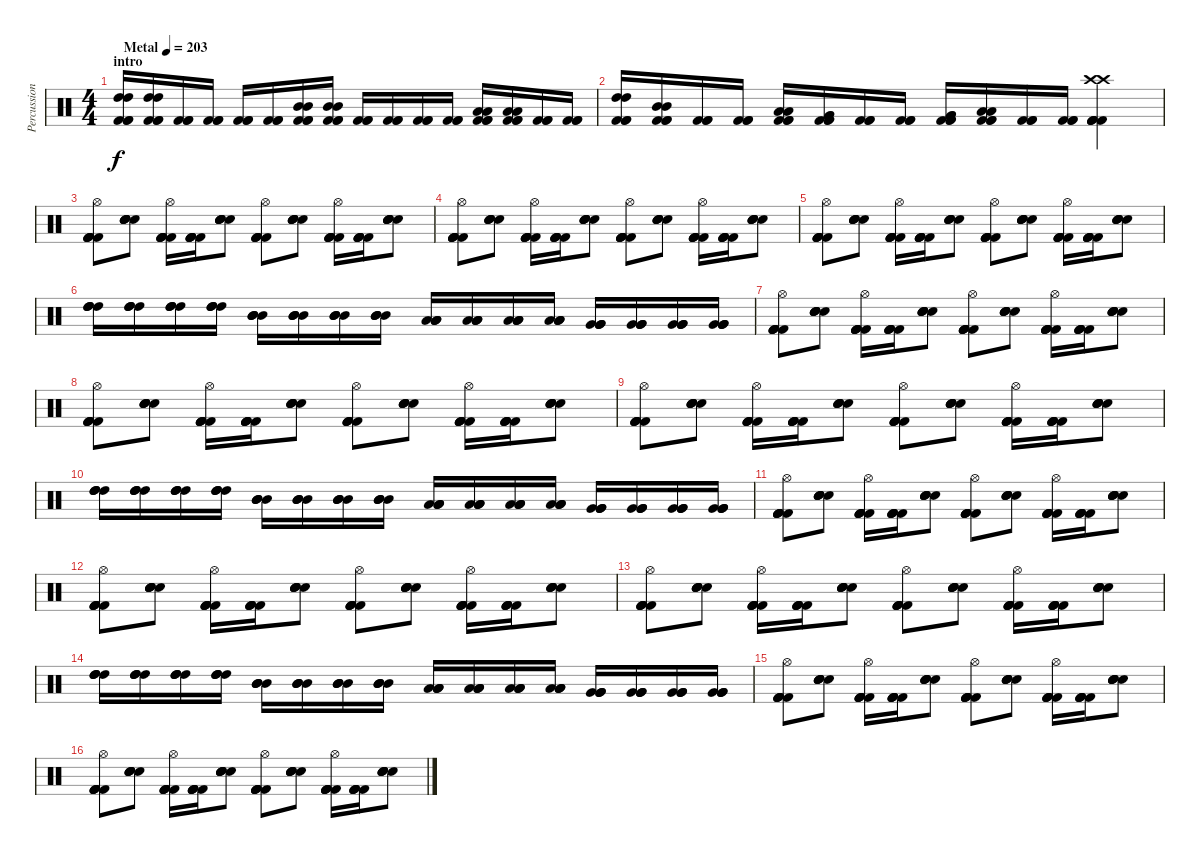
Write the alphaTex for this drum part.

\track ("Percussion" "Percussion") {instrument percussion}
\staff {score}
\articulation defaults
\ts (4 4)
\section ("" "intro")
\tempo (203 "Metal")
\clef neutral
\ks c
("Kick (hit) 2" "Kick (hit) 2" "Kick (hit) 2" "High Tom (hit)" "High Tom (hit)").16{dy f} ("Kick (hit) 2" "Kick (hit) 2" "Kick (hit) 2" "High Tom (hit)" "High Tom (hit)").16 ("Kick (hit) 2" "Kick (hit) 2" "Kick (hit) 2").16 ("Kick (hit) 2" "Kick (hit) 2" "Kick (hit) 2").16 ("Kick (hit) 2" "Kick (hit) 2" "Kick (hit) 2").16 ("Kick (hit) 2" "Kick (hit) 2" "Kick (hit) 2").16 ("Kick (hit) 2" "Kick (hit) 2" "Kick (hit) 2" "Mid Tom (hit)" "Mid Tom (hit)").16 ("Kick (hit) 2" "Kick (hit) 2" "Kick (hit) 2" "Mid Tom (hit)" "Mid Tom (hit)").16 ("Kick (hit) 2" "Kick (hit) 2" "Kick (hit) 2").16 ("Kick (hit) 2" "Kick (hit) 2" "Kick (hit) 2").16 ("Kick (hit) 2" "Kick (hit) 2" "Kick (hit) 2").16 ("Kick (hit) 2" "Kick (hit) 2" "Kick (hit) 2").16 ("Kick (hit) 2" "Kick (hit) 2" "Kick (hit) 2" "Low Tom (hit)" "Low Tom (hit)").16 ("Kick (hit) 2" "Kick (hit) 2" "Kick (hit) 2" "Low Tom (hit)" "Low Tom (hit)").16 ("Kick (hit) 2" "Kick (hit) 2" "Kick (hit) 2").16 ("Kick (hit) 2" "Kick (hit) 2" "Kick (hit) 2").16 |
("Kick (hit) 2" "Kick (hit) 2" "Kick (hit) 2" "High Tom (hit)" "High Tom (hit)").16 ("Kick (hit) 2" "Kick (hit) 2" "Kick (hit) 2" "Mid Tom (hit)" "Mid Tom (hit)").16 ("Kick (hit) 2" "Kick (hit) 2" "Kick (hit) 2").16 ("Kick (hit) 2" "Kick (hit) 2" "Kick (hit) 2").16 ("Kick (hit) 2" "Kick (hit) 2" "Kick (hit) 2" "Low Tom (hit)" "Low Tom (hit)").16 ("Kick (hit) 2" "Kick (hit) 2" "Kick (hit) 2" "Very Low Tom (hit)" "Very Low Tom (hit)").16 ("Kick (hit) 2" "Kick (hit) 2" "Kick (hit) 2").16 ("Kick (hit) 2" "Kick (hit) 2" "Kick (hit) 2").16 ("Kick (hit) 2" "Kick (hit) 2" "Kick (hit) 2" "Very Low Tom (hit)" "Very Low Tom (hit)").16 ("Kick (hit) 2" "Kick (hit) 2" "Kick (hit) 2" "Low Floor Tom (hit)" "Low Floor Tom (hit)").16 ("Kick (hit) 2" "Kick (hit) 2" "Kick (hit) 2").16 ("Kick (hit) 2" "Kick (hit) 2" "Kick (hit) 2").16 ("Kick (hit) 2" "Kick (hit) 2" "Kick (hit) 2" "Kick (hit) 2" "Crash high (hit)" "Crash high (hit)").4 |
("Kick (hit) 2" "Kick (hit) 2" "Kick (hit) 2" "Kick (hit) 2" "Kick (hit) 2" "Hi-Hat (open)").8 ("Electric Snare (hit)" "Electric Snare (hit)" "Electric Snare (hit)" "Electric Snare (hit)" "Electric Snare (hit)").8 ("Kick (hit) 2" "Kick (hit) 2" "Kick (hit) 2" "Kick (hit) 2" "Kick (hit) 2" "Hi-Hat (open)").16 ("Kick (hit) 2" "Kick (hit) 2" "Kick (hit) 2" "Kick (hit) 2" "Kick (hit) 2").16 ("Electric Snare (hit)" "Electric Snare (hit)" "Electric Snare (hit)" "Electric Snare (hit)" "Electric Snare (hit)").8 ("Kick (hit) 2" "Kick (hit) 2" "Kick (hit) 2" "Kick (hit) 2" "Kick (hit) 2" "Hi-Hat (open)").8 ("Electric Snare (hit)" "Electric Snare (hit)" "Electric Snare (hit)" "Electric Snare (hit)" "Electric Snare (hit)").8 ("Kick (hit) 2" "Kick (hit) 2" "Kick (hit) 2" "Kick (hit) 2" "Kick (hit) 2" "Hi-Hat (open)").16 ("Kick (hit) 2" "Kick (hit) 2" "Kick (hit) 2" "Kick (hit) 2" "Kick (hit) 2").16 ("Electric Snare (hit)" "Electric Snare (hit)" "Electric Snare (hit)" "Electric Snare (hit)" "Electric Snare (hit)").8 |
("Kick (hit) 2" "Kick (hit) 2" "Kick (hit) 2" "Kick (hit) 2" "Kick (hit) 2" "Hi-Hat (open)").8 ("Electric Snare (hit)" "Electric Snare (hit)" "Electric Snare (hit)" "Electric Snare (hit)" "Electric Snare (hit)").8 ("Kick (hit) 2" "Kick (hit) 2" "Kick (hit) 2" "Kick (hit) 2" "Kick (hit) 2" "Hi-Hat (open)").16 ("Kick (hit) 2" "Kick (hit) 2" "Kick (hit) 2" "Kick (hit) 2" "Kick (hit) 2").16 ("Electric Snare (hit)" "Electric Snare (hit)" "Electric Snare (hit)" "Electric Snare (hit)" "Electric Snare (hit)").8 ("Kick (hit) 2" "Kick (hit) 2" "Kick (hit) 2" "Kick (hit) 2" "Kick (hit) 2" "Hi-Hat (open)").8 ("Electric Snare (hit)" "Electric Snare (hit)" "Electric Snare (hit)" "Electric Snare (hit)" "Electric Snare (hit)").8 ("Kick (hit) 2" "Kick (hit) 2" "Kick (hit) 2" "Kick (hit) 2" "Kick (hit) 2" "Hi-Hat (open)").16 ("Kick (hit) 2" "Kick (hit) 2" "Kick (hit) 2" "Kick (hit) 2" "Kick (hit) 2").16 ("Electric Snare (hit)" "Electric Snare (hit)" "Electric Snare (hit)" "Electric Snare (hit)" "Electric Snare (hit)").8 |
("Kick (hit) 2" "Kick (hit) 2" "Kick (hit) 2" "Kick (hit) 2" "Kick (hit) 2" "Hi-Hat (open)").8 ("Electric Snare (hit)" "Electric Snare (hit)" "Electric Snare (hit)" "Electric Snare (hit)" "Electric Snare (hit)").8 ("Kick (hit) 2" "Kick (hit) 2" "Kick (hit) 2" "Kick (hit) 2" "Kick (hit) 2" "Hi-Hat (open)").16 ("Kick (hit) 2" "Kick (hit) 2" "Kick (hit) 2" "Kick (hit) 2" "Kick (hit) 2").16 ("Electric Snare (hit)" "Electric Snare (hit)" "Electric Snare (hit)" "Electric Snare (hit)" "Electric Snare (hit)").8 ("Kick (hit) 2" "Kick (hit) 2" "Kick (hit) 2" "Kick (hit) 2" "Kick (hit) 2" "Hi-Hat (open)").8 ("Electric Snare (hit)" "Electric Snare (hit)" "Electric Snare (hit)" "Electric Snare (hit)" "Electric Snare (hit)").8 ("Kick (hit) 2" "Kick (hit) 2" "Kick (hit) 2" "Kick (hit) 2" "Kick (hit) 2" "Hi-Hat (open)").16 ("Kick (hit) 2" "Kick (hit) 2" "Kick (hit) 2" "Kick (hit) 2" "Kick (hit) 2").16 ("Electric Snare (hit)" "Electric Snare (hit)" "Electric Snare (hit)" "Electric Snare (hit)" "Electric Snare (hit)").8 |
("High Tom (hit)" "High Tom (hit)" "High Tom (hit)" "High Tom (hit)").16 ("High Tom (hit)" "High Tom (hit)" "High Tom (hit)" "High Tom (hit)").16 ("High Tom (hit)" "High Tom (hit)" "High Tom (hit)" "High Tom (hit)").16 ("High Tom (hit)" "High Tom (hit)" "High Tom (hit)" "High Tom (hit)").16 ("Mid Tom (hit)" "Mid Tom (hit)" "Mid Tom (hit)" "Mid Tom (hit)").16 ("Mid Tom (hit)" "Mid Tom (hit)" "Mid Tom (hit)" "Mid Tom (hit)").16 ("Mid Tom (hit)" "Mid Tom (hit)" "Mid Tom (hit)" "Mid Tom (hit)").16 ("Mid Tom (hit)" "Mid Tom (hit)" "Mid Tom (hit)" "Mid Tom (hit)").16 ("Low Tom (hit)" "Low Tom (hit)" "Low Tom (hit)" "Low Tom (hit)").16 ("Low Tom (hit)" "Low Tom (hit)" "Low Tom (hit)" "Low Tom (hit)").16 ("Low Tom (hit)" "Low Tom (hit)" "Low Tom (hit)" "Low Tom (hit)").16 ("Low Tom (hit)" "Low Tom (hit)" "Low Tom (hit)" "Low Tom (hit)").16 ("Very Low Tom (hit)" "Very Low Tom (hit)" "Very Low Tom (hit)" "Very Low Tom (hit)").16 ("Very Low Tom (hit)" "Very Low Tom (hit)" "Very Low Tom (hit)" "Very Low Tom (hit)").16 ("Very Low Tom (hit)" "Very Low Tom (hit)" "Very Low Tom (hit)" "Very Low Tom (hit)").16 ("Very Low Tom (hit)" "Very Low Tom (hit)" "Very Low Tom (hit)" "Very Low Tom (hit)").16 |
("Kick (hit) 2" "Kick (hit) 2" "Kick (hit) 2" "Kick (hit) 2" "Kick (hit) 2" "Hi-Hat (open)").8 ("Electric Snare (hit)" "Electric Snare (hit)" "Electric Snare (hit)" "Electric Snare (hit)" "Electric Snare (hit)").8 ("Kick (hit) 2" "Kick (hit) 2" "Kick (hit) 2" "Kick (hit) 2" "Kick (hit) 2" "Hi-Hat (open)").16 ("Kick (hit) 2" "Kick (hit) 2" "Kick (hit) 2" "Kick (hit) 2" "Kick (hit) 2").16 ("Electric Snare (hit)" "Electric Snare (hit)" "Electric Snare (hit)" "Electric Snare (hit)" "Electric Snare (hit)").8 ("Kick (hit) 2" "Kick (hit) 2" "Kick (hit) 2" "Kick (hit) 2" "Kick (hit) 2" "Hi-Hat (open)").8 ("Electric Snare (hit)" "Electric Snare (hit)" "Electric Snare (hit)" "Electric Snare (hit)" "Electric Snare (hit)").8 ("Kick (hit) 2" "Kick (hit) 2" "Kick (hit) 2" "Kick (hit) 2" "Kick (hit) 2" "Hi-Hat (open)").16 ("Kick (hit) 2" "Kick (hit) 2" "Kick (hit) 2" "Kick (hit) 2" "Kick (hit) 2").16 ("Electric Snare (hit)" "Electric Snare (hit)" "Electric Snare (hit)" "Electric Snare (hit)" "Electric Snare (hit)").8 |
("Kick (hit) 2" "Kick (hit) 2" "Kick (hit) 2" "Kick (hit) 2" "Kick (hit) 2" "Hi-Hat (open)").8 ("Electric Snare (hit)" "Electric Snare (hit)" "Electric Snare (hit)" "Electric Snare (hit)" "Electric Snare (hit)").8 ("Kick (hit) 2" "Kick (hit) 2" "Kick (hit) 2" "Kick (hit) 2" "Kick (hit) 2" "Hi-Hat (open)").16 ("Kick (hit) 2" "Kick (hit) 2" "Kick (hit) 2" "Kick (hit) 2" "Kick (hit) 2").16 ("Electric Snare (hit)" "Electric Snare (hit)" "Electric Snare (hit)" "Electric Snare (hit)" "Electric Snare (hit)").8 ("Kick (hit) 2" "Kick (hit) 2" "Kick (hit) 2" "Kick (hit) 2" "Kick (hit) 2" "Hi-Hat (open)").8 ("Electric Snare (hit)" "Electric Snare (hit)" "Electric Snare (hit)" "Electric Snare (hit)" "Electric Snare (hit)").8 ("Kick (hit) 2" "Kick (hit) 2" "Kick (hit) 2" "Kick (hit) 2" "Kick (hit) 2" "Hi-Hat (open)").16 ("Kick (hit) 2" "Kick (hit) 2" "Kick (hit) 2" "Kick (hit) 2" "Kick (hit) 2").16 ("Electric Snare (hit)" "Electric Snare (hit)" "Electric Snare (hit)" "Electric Snare (hit)" "Electric Snare (hit)").8 |
("Kick (hit) 2" "Kick (hit) 2" "Kick (hit) 2" "Kick (hit) 2" "Kick (hit) 2" "Hi-Hat (open)").8 ("Electric Snare (hit)" "Electric Snare (hit)" "Electric Snare (hit)" "Electric Snare (hit)" "Electric Snare (hit)").8 ("Kick (hit) 2" "Kick (hit) 2" "Kick (hit) 2" "Kick (hit) 2" "Kick (hit) 2" "Hi-Hat (open)").16 ("Kick (hit) 2" "Kick (hit) 2" "Kick (hit) 2" "Kick (hit) 2" "Kick (hit) 2").16 ("Electric Snare (hit)" "Electric Snare (hit)" "Electric Snare (hit)" "Electric Snare (hit)" "Electric Snare (hit)").8 ("Kick (hit) 2" "Kick (hit) 2" "Kick (hit) 2" "Kick (hit) 2" "Kick (hit) 2" "Hi-Hat (open)").8 ("Electric Snare (hit)" "Electric Snare (hit)" "Electric Snare (hit)" "Electric Snare (hit)" "Electric Snare (hit)").8 ("Kick (hit) 2" "Kick (hit) 2" "Kick (hit) 2" "Kick (hit) 2" "Kick (hit) 2" "Hi-Hat (open)").16 ("Kick (hit) 2" "Kick (hit) 2" "Kick (hit) 2" "Kick (hit) 2" "Kick (hit) 2").16 ("Electric Snare (hit)" "Electric Snare (hit)" "Electric Snare (hit)" "Electric Snare (hit)" "Electric Snare (hit)").8 |
("High Tom (hit)" "High Tom (hit)" "High Tom (hit)" "High Tom (hit)").16 ("High Tom (hit)" "High Tom (hit)" "High Tom (hit)" "High Tom (hit)").16 ("High Tom (hit)" "High Tom (hit)" "High Tom (hit)" "High Tom (hit)").16 ("High Tom (hit)" "High Tom (hit)" "High Tom (hit)" "High Tom (hit)").16 ("Mid Tom (hit)" "Mid Tom (hit)" "Mid Tom (hit)" "Mid Tom (hit)").16 ("Mid Tom (hit)" "Mid Tom (hit)" "Mid Tom (hit)" "Mid Tom (hit)").16 ("Mid Tom (hit)" "Mid Tom (hit)" "Mid Tom (hit)" "Mid Tom (hit)").16 ("Mid Tom (hit)" "Mid Tom (hit)" "Mid Tom (hit)" "Mid Tom (hit)").16 ("Low Tom (hit)" "Low Tom (hit)" "Low Tom (hit)" "Low Tom (hit)").16 ("Low Tom (hit)" "Low Tom (hit)" "Low Tom (hit)" "Low Tom (hit)").16 ("Low Tom (hit)" "Low Tom (hit)" "Low Tom (hit)" "Low Tom (hit)").16 ("Low Tom (hit)" "Low Tom (hit)" "Low Tom (hit)" "Low Tom (hit)").16 ("Very Low Tom (hit)" "Very Low Tom (hit)" "Very Low Tom (hit)" "Very Low Tom (hit)").16 ("Very Low Tom (hit)" "Very Low Tom (hit)" "Very Low Tom (hit)" "Very Low Tom (hit)").16 ("Very Low Tom (hit)" "Very Low Tom (hit)" "Very Low Tom (hit)" "Very Low Tom (hit)").16 ("Very Low Tom (hit)" "Very Low Tom (hit)" "Very Low Tom (hit)" "Very Low Tom (hit)").16 |
("Kick (hit) 2" "Kick (hit) 2" "Kick (hit) 2" "Kick (hit) 2" "Kick (hit) 2" "Hi-Hat (open)").8 ("Electric Snare (hit)" "Electric Snare (hit)" "Electric Snare (hit)" "Electric Snare (hit)" "Electric Snare (hit)").8 ("Kick (hit) 2" "Kick (hit) 2" "Kick (hit) 2" "Kick (hit) 2" "Kick (hit) 2" "Hi-Hat (open)").16 ("Kick (hit) 2" "Kick (hit) 2" "Kick (hit) 2" "Kick (hit) 2" "Kick (hit) 2").16 ("Electric Snare (hit)" "Electric Snare (hit)" "Electric Snare (hit)" "Electric Snare (hit)" "Electric Snare (hit)").8 ("Kick (hit) 2" "Kick (hit) 2" "Kick (hit) 2" "Kick (hit) 2" "Kick (hit) 2" "Hi-Hat (open)").8 ("Electric Snare (hit)" "Electric Snare (hit)" "Electric Snare (hit)" "Electric Snare (hit)" "Electric Snare (hit)").8 ("Kick (hit) 2" "Kick (hit) 2" "Kick (hit) 2" "Kick (hit) 2" "Kick (hit) 2" "Hi-Hat (open)").16 ("Kick (hit) 2" "Kick (hit) 2" "Kick (hit) 2" "Kick (hit) 2" "Kick (hit) 2").16 ("Electric Snare (hit)" "Electric Snare (hit)" "Electric Snare (hit)" "Electric Snare (hit)" "Electric Snare (hit)").8 |
("Kick (hit) 2" "Kick (hit) 2" "Kick (hit) 2" "Kick (hit) 2" "Kick (hit) 2" "Hi-Hat (open)").8 ("Electric Snare (hit)" "Electric Snare (hit)" "Electric Snare (hit)" "Electric Snare (hit)" "Electric Snare (hit)").8 ("Kick (hit) 2" "Kick (hit) 2" "Kick (hit) 2" "Kick (hit) 2" "Kick (hit) 2" "Hi-Hat (open)").16 ("Kick (hit) 2" "Kick (hit) 2" "Kick (hit) 2" "Kick (hit) 2" "Kick (hit) 2").16 ("Electric Snare (hit)" "Electric Snare (hit)" "Electric Snare (hit)" "Electric Snare (hit)" "Electric Snare (hit)").8 ("Kick (hit) 2" "Kick (hit) 2" "Kick (hit) 2" "Kick (hit) 2" "Kick (hit) 2" "Hi-Hat (open)").8 ("Electric Snare (hit)" "Electric Snare (hit)" "Electric Snare (hit)" "Electric Snare (hit)" "Electric Snare (hit)").8 ("Kick (hit) 2" "Kick (hit) 2" "Kick (hit) 2" "Kick (hit) 2" "Kick (hit) 2" "Hi-Hat (open)").16 ("Kick (hit) 2" "Kick (hit) 2" "Kick (hit) 2" "Kick (hit) 2" "Kick (hit) 2").16 ("Electric Snare (hit)" "Electric Snare (hit)" "Electric Snare (hit)" "Electric Snare (hit)" "Electric Snare (hit)").8 |
("Kick (hit) 2" "Kick (hit) 2" "Kick (hit) 2" "Kick (hit) 2" "Kick (hit) 2" "Hi-Hat (open)").8 ("Electric Snare (hit)" "Electric Snare (hit)" "Electric Snare (hit)" "Electric Snare (hit)" "Electric Snare (hit)").8 ("Kick (hit) 2" "Kick (hit) 2" "Kick (hit) 2" "Kick (hit) 2" "Kick (hit) 2" "Hi-Hat (open)").16 ("Kick (hit) 2" "Kick (hit) 2" "Kick (hit) 2" "Kick (hit) 2" "Kick (hit) 2").16 ("Electric Snare (hit)" "Electric Snare (hit)" "Electric Snare (hit)" "Electric Snare (hit)" "Electric Snare (hit)").8 ("Kick (hit) 2" "Kick (hit) 2" "Kick (hit) 2" "Kick (hit) 2" "Kick (hit) 2" "Hi-Hat (open)").8 ("Electric Snare (hit)" "Electric Snare (hit)" "Electric Snare (hit)" "Electric Snare (hit)" "Electric Snare (hit)").8 ("Kick (hit) 2" "Kick (hit) 2" "Kick (hit) 2" "Kick (hit) 2" "Kick (hit) 2" "Hi-Hat (open)").16 ("Kick (hit) 2" "Kick (hit) 2" "Kick (hit) 2" "Kick (hit) 2" "Kick (hit) 2").16 ("Electric Snare (hit)" "Electric Snare (hit)" "Electric Snare (hit)" "Electric Snare (hit)" "Electric Snare (hit)").8 |
("High Tom (hit)" "High Tom (hit)" "High Tom (hit)" "High Tom (hit)").16 ("High Tom (hit)" "High Tom (hit)" "High Tom (hit)" "High Tom (hit)").16 ("High Tom (hit)" "High Tom (hit)" "High Tom (hit)" "High Tom (hit)").16 ("High Tom (hit)" "High Tom (hit)" "High Tom (hit)" "High Tom (hit)").16 ("Mid Tom (hit)" "Mid Tom (hit)" "Mid Tom (hit)" "Mid Tom (hit)").16 ("Mid Tom (hit)" "Mid Tom (hit)" "Mid Tom (hit)" "Mid Tom (hit)").16 ("Mid Tom (hit)" "Mid Tom (hit)" "Mid Tom (hit)" "Mid Tom (hit)").16 ("Mid Tom (hit)" "Mid Tom (hit)" "Mid Tom (hit)" "Mid Tom (hit)").16 ("Low Tom (hit)" "Low Tom (hit)" "Low Tom (hit)" "Low Tom (hit)").16 ("Low Tom (hit)" "Low Tom (hit)" "Low Tom (hit)" "Low Tom (hit)").16 ("Low Tom (hit)" "Low Tom (hit)" "Low Tom (hit)" "Low Tom (hit)").16 ("Low Tom (hit)" "Low Tom (hit)" "Low Tom (hit)" "Low Tom (hit)").16 ("Very Low Tom (hit)" "Very Low Tom (hit)" "Very Low Tom (hit)" "Very Low Tom (hit)").16 ("Very Low Tom (hit)" "Very Low Tom (hit)" "Very Low Tom (hit)" "Very Low Tom (hit)").16 ("Very Low Tom (hit)" "Very Low Tom (hit)" "Very Low Tom (hit)" "Very Low Tom (hit)").16 ("Very Low Tom (hit)" "Very Low Tom (hit)" "Very Low Tom (hit)" "Very Low Tom (hit)").16 |
("Kick (hit) 2" "Kick (hit) 2" "Kick (hit) 2" "Kick (hit) 2" "Kick (hit) 2" "Hi-Hat (open)").8 ("Electric Snare (hit)" "Electric Snare (hit)" "Electric Snare (hit)" "Electric Snare (hit)" "Electric Snare (hit)").8 ("Kick (hit) 2" "Kick (hit) 2" "Kick (hit) 2" "Kick (hit) 2" "Kick (hit) 2" "Hi-Hat (open)").16 ("Kick (hit) 2" "Kick (hit) 2" "Kick (hit) 2" "Kick (hit) 2" "Kick (hit) 2").16 ("Electric Snare (hit)" "Electric Snare (hit)" "Electric Snare (hit)" "Electric Snare (hit)" "Electric Snare (hit)").8 ("Kick (hit) 2" "Kick (hit) 2" "Kick (hit) 2" "Kick (hit) 2" "Kick (hit) 2" "Hi-Hat (open)").8 ("Electric Snare (hit)" "Electric Snare (hit)" "Electric Snare (hit)" "Electric Snare (hit)" "Electric Snare (hit)").8 ("Kick (hit) 2" "Kick (hit) 2" "Kick (hit) 2" "Kick (hit) 2" "Kick (hit) 2" "Hi-Hat (open)").16 ("Kick (hit) 2" "Kick (hit) 2" "Kick (hit) 2" "Kick (hit) 2" "Kick (hit) 2").16 ("Electric Snare (hit)" "Electric Snare (hit)" "Electric Snare (hit)" "Electric Snare (hit)" "Electric Snare (hit)").8 |
("Kick (hit) 2" "Kick (hit) 2" "Kick (hit) 2" "Kick (hit) 2" "Kick (hit) 2" "Hi-Hat (open)").8 ("Electric Snare (hit)" "Electric Snare (hit)" "Electric Snare (hit)" "Electric Snare (hit)" "Electric Snare (hit)").8 ("Kick (hit) 2" "Kick (hit) 2" "Kick (hit) 2" "Kick (hit) 2" "Kick (hit) 2" "Hi-Hat (open)").16 ("Kick (hit) 2" "Kick (hit) 2" "Kick (hit) 2" "Kick (hit) 2" "Kick (hit) 2").16 ("Electric Snare (hit)" "Electric Snare (hit)" "Electric Snare (hit)" "Electric Snare (hit)" "Electric Snare (hit)").8 ("Kick (hit) 2" "Kick (hit) 2" "Kick (hit) 2" "Kick (hit) 2" "Kick (hit) 2" "Hi-Hat (open)").8 ("Electric Snare (hit)" "Electric Snare (hit)" "Electric Snare (hit)" "Electric Snare (hit)" "Electric Snare (hit)").8 ("Kick (hit) 2" "Kick (hit) 2" "Kick (hit) 2" "Kick (hit) 2" "Kick (hit) 2" "Hi-Hat (open)").16 ("Kick (hit) 2" "Kick (hit) 2" "Kick (hit) 2" "Kick (hit) 2" "Kick (hit) 2").16 ("Electric Snare (hit)" "Electric Snare (hit)" "Electric Snare (hit)" "Electric Snare (hit)" "Electric Snare (hit)").8
